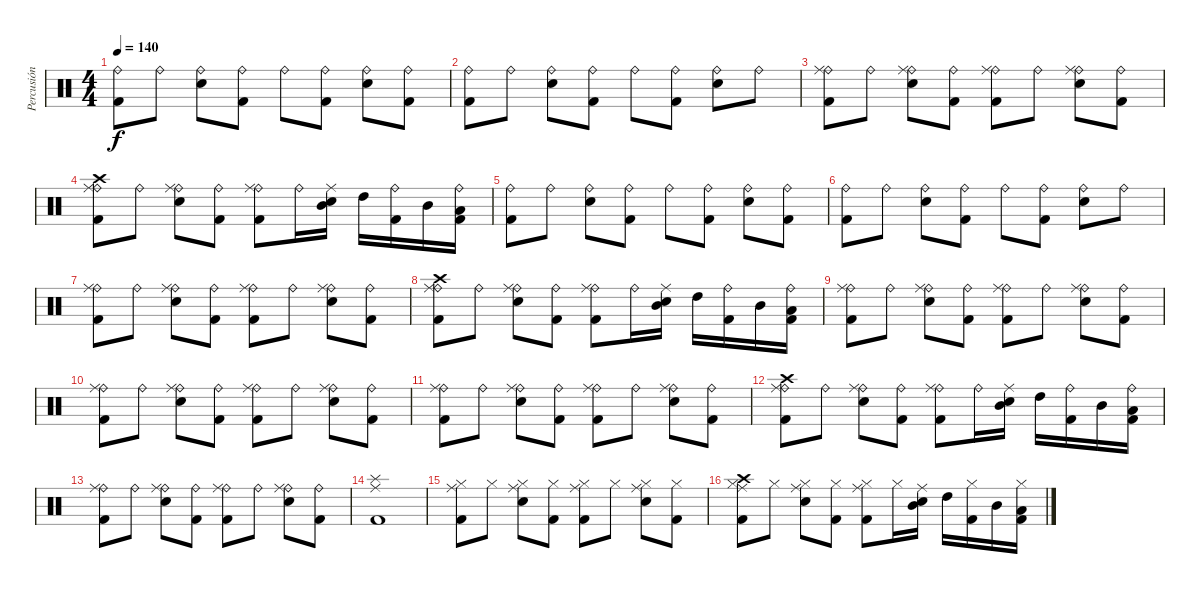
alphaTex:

\track ("Percusión" "Percusión") {instrument percussion}
\staff {score}
\articulation defaults
\ts (4 4)
\tempo 140
\clef neutral
\ks c
("Ride (bell)" "Kick (hit) 2").8{dy f} "Ride (bell)".8 ("Ride (bell)" "Snare (hit) 2").8 ("Ride (bell)" "Kick (hit) 2").8 "Ride (bell)".8 ("Ride (bell)" "Kick (hit) 2").8 ("Ride (bell)" "Snare (hit) 2").8 ("Ride (bell)" "Kick (hit) 2").8 |
("Ride (bell)" "Kick (hit) 2").8 "Ride (bell)".8 ("Ride (bell)" "Snare (hit) 2").8 ("Ride (bell)" "Kick (hit) 2").8 "Ride (bell)".8 ("Ride (bell)" "Kick (hit) 2").8 ("Ride (bell)" "Snare (hit) 2").8 "Ride (bell)".8 |
("Ride (bell)" "Kick (hit) 2" "Ride (middle)").8 "Ride (bell)".8 ("Ride (bell)" "Snare (hit) 2" "Ride (middle)").8 ("Ride (bell)" "Kick (hit) 2").8 ("Ride (bell)" "Kick (hit) 2" "Ride (middle)").8 "Ride (bell)".8 ("Ride (bell)" "Snare (hit) 2" "Ride (middle)").8 ("Ride (bell)" "Kick (hit) 2").8 |
("Ride (bell)" "Kick (hit) 2" "Crash high (hit)" "Ride (middle)").8 "Ride (bell)".8 ("Ride (bell)" "Snare (hit) 2" "Ride (middle)").8 ("Ride (bell)" "Kick (hit) 2").8 ("Ride (bell)" "Kick (hit) 2" "Ride (middle)").8 "Ride (bell)".16 ("Mid Tom (hit)" "Snare (hit) 2" "Ride (middle)").16 "High Tom (hit)".16 ("Ride (bell)" "Kick (hit) 2").16 "Mid Tom (hit)".16 ("Ride (bell)" "Low Tom (hit)" "Kick (hit) 2").16 |
("Ride (bell)" "Kick (hit) 2").8 "Ride (bell)".8 ("Ride (bell)" "Snare (hit) 2").8 ("Ride (bell)" "Kick (hit) 2").8 "Ride (bell)".8 ("Ride (bell)" "Kick (hit) 2").8 ("Ride (bell)" "Snare (hit) 2").8 ("Ride (bell)" "Kick (hit) 2").8 |
("Ride (bell)" "Kick (hit) 2").8 "Ride (bell)".8 ("Ride (bell)" "Snare (hit) 2").8 ("Ride (bell)" "Kick (hit) 2").8 "Ride (bell)".8 ("Ride (bell)" "Kick (hit) 2").8 ("Ride (bell)" "Snare (hit) 2").8 "Ride (bell)".8 |
("Ride (bell)" "Kick (hit) 2" "Ride (middle)").8 "Ride (bell)".8 ("Ride (bell)" "Snare (hit) 2" "Ride (middle)").8 ("Ride (bell)" "Kick (hit) 2").8 ("Ride (bell)" "Kick (hit) 2" "Ride (middle)").8 "Ride (bell)".8 ("Ride (bell)" "Snare (hit) 2" "Ride (middle)").8 ("Ride (bell)" "Kick (hit) 2").8 |
("Ride (bell)" "Kick (hit) 2" "Crash high (hit)" "Ride (middle)").8 "Ride (bell)".8 ("Ride (bell)" "Snare (hit) 2" "Ride (middle)").8 ("Ride (bell)" "Kick (hit) 2").8 ("Ride (bell)" "Kick (hit) 2" "Ride (middle)").8 "Ride (bell)".16 ("Mid Tom (hit)" "Snare (hit) 2" "Ride (middle)").16 "High Tom (hit)".16 ("Ride (bell)" "Kick (hit) 2").16 "Mid Tom (hit)".16 ("Ride (bell)" "Low Tom (hit)" "Kick (hit) 2").16 |
("Ride (bell)" "Kick (hit) 2" "Ride (middle)").8 "Ride (bell)".8 ("Ride (bell)" "Snare (hit) 2" "Ride (middle)").8 ("Ride (bell)" "Kick (hit) 2").8 ("Ride (bell)" "Kick (hit) 2" "Ride (middle)").8 "Ride (bell)".8 ("Ride (bell)" "Snare (hit) 2" "Ride (middle)").8 ("Ride (bell)" "Kick (hit) 2").8 |
("Ride (bell)" "Kick (hit) 2" "Ride (middle)").8 "Ride (bell)".8 ("Ride (bell)" "Snare (hit) 2" "Ride (middle)").8 ("Ride (bell)" "Kick (hit) 2").8 ("Ride (bell)" "Kick (hit) 2" "Ride (middle)").8 "Ride (bell)".8 ("Ride (bell)" "Snare (hit) 2" "Ride (middle)").8 ("Ride (bell)" "Kick (hit) 2").8 |
("Ride (bell)" "Kick (hit) 2" "Ride (middle)").8 "Ride (bell)".8 ("Ride (bell)" "Snare (hit) 2" "Ride (middle)").8 ("Ride (bell)" "Kick (hit) 2").8 ("Ride (bell)" "Kick (hit) 2" "Ride (middle)").8 "Ride (bell)".8 ("Ride (bell)" "Snare (hit) 2" "Ride (middle)").8 ("Ride (bell)" "Kick (hit) 2").8 |
("Ride (bell)" "Kick (hit) 2" "Crash high (hit)" "Ride (middle)").8 "Ride (bell)".8 ("Ride (bell)" "Snare (hit) 2" "Ride (middle)").8 ("Ride (bell)" "Kick (hit) 2").8 ("Ride (bell)" "Kick (hit) 2" "Ride (middle)").8 "Ride (bell)".16 ("Mid Tom (hit)" "Snare (hit) 2" "Ride (middle)").16 "High Tom (hit)".16 ("Ride (bell)" "Kick (hit) 2").16 "Mid Tom (hit)".16 ("Ride (bell)" "Low Tom (hit)" "Kick (hit) 2").16 |
("Ride (bell)" "Kick (hit) 2" "Ride (middle)").8 "Ride (bell)".8 ("Ride (bell)" "Snare (hit) 2" "Ride (middle)").8 ("Ride (bell)" "Kick (hit) 2").8 ("Ride (bell)" "Kick (hit) 2" "Ride (middle)").8 "Ride (bell)".8 ("Ride (bell)" "Snare (hit) 2" "Ride (middle)").8 ("Ride (bell)" "Kick (hit) 2").8 |
("Splash (hit)" "Kick (hit) 2" "Ride (middle)").1 |
("Hi-Hat (closed)" "Kick (hit) 2" "Ride (middle)").8 "Hi-Hat (closed)".8 ("Hi-Hat (closed)" "Snare (hit) 2" "Ride (middle)").8 ("Hi-Hat (closed)" "Kick (hit) 2").8 ("Hi-Hat (closed)" "Kick (hit) 2" "Ride (middle)").8 "Hi-Hat (closed)".8 ("Hi-Hat (closed)" "Snare (hit) 2" "Ride (middle)").8 ("Hi-Hat (closed)" "Kick (hit) 2").8 |
("Hi-Hat (closed)" "Kick (hit) 2" "Crash high (hit)" "Ride (middle)").8 "Hi-Hat (closed)".8 ("Hi-Hat (closed)" "Snare (hit) 2" "Ride (middle)").8 ("Hi-Hat (closed)" "Kick (hit) 2").8 ("Hi-Hat (closed)" "Kick (hit) 2" "Ride (middle)").8 "Hi-Hat (closed)".16 ("Mid Tom (hit)" "Snare (hit) 2" "Ride (middle)").16 "High Tom (hit)".16 ("Hi-Hat (closed)" "Kick (hit) 2").16 "Mid Tom (hit)".16 ("Hi-Hat (closed)" "Low Tom (hit)" "Kick (hit) 2").16
